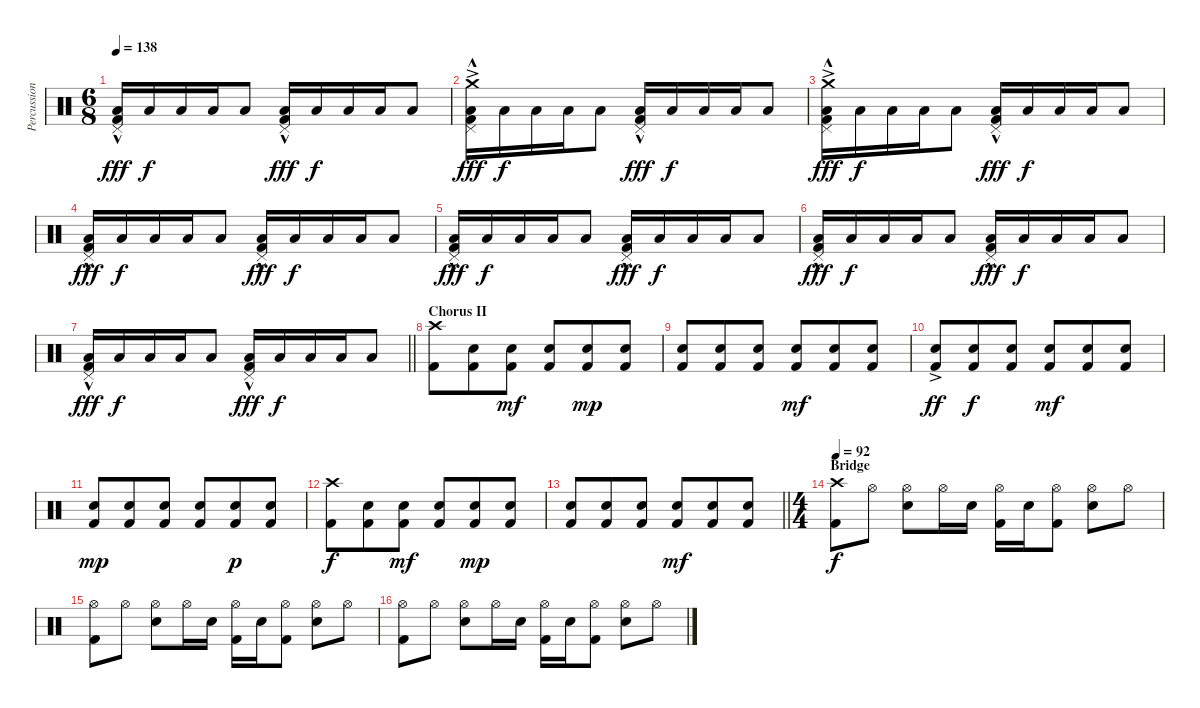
\track ("Percussion" "Percussion") {instrument percussion}
\staff {score}
\articulation defaults
\ts (6 8)
\tempo 138
\clef neutral
\ks c
("Pedal Hi-Hat (hit)"{hac} "Low Floor Tom (hit)" "Kick (hit) 2").16{dy fff} "Low Floor Tom (hit)".16{dy f} "Low Floor Tom (hit)".16 "Low Floor Tom (hit)".16 "Low Floor Tom (hit)".8 ("Pedal Hi-Hat (hit)"{hac} "Low Floor Tom (hit)" "Kick (hit) 2").16{dy fff} "Low Floor Tom (hit)".16{dy f} "Low Floor Tom (hit)".16 "Low Floor Tom (hit)".16 "Low Floor Tom (hit)".8 |
("Crash medium (hit)"{ac} "Pedal Hi-Hat (hit)"{hac} "Low Floor Tom (hit)" "Kick (hit) 2").16{dy fff} "Low Floor Tom (hit)".16{dy f} "Low Floor Tom (hit)".16 "Low Floor Tom (hit)".16 "Low Floor Tom (hit)".8 ("Pedal Hi-Hat (hit)"{hac} "Low Floor Tom (hit)" "Kick (hit) 2").16{dy fff} "Low Floor Tom (hit)".16{dy f} "Low Floor Tom (hit)".16 "Low Floor Tom (hit)".16 "Low Floor Tom (hit)".8 |
("Crash medium (hit)"{ac} "Pedal Hi-Hat (hit)"{hac} "Low Floor Tom (hit)" "Kick (hit) 2").16{dy fff} "Low Floor Tom (hit)".16{dy f} "Low Floor Tom (hit)".16 "Low Floor Tom (hit)".16 "Low Floor Tom (hit)".8 ("Pedal Hi-Hat (hit)"{hac} "Low Floor Tom (hit)" "Kick (hit) 2").16{dy fff} "Low Floor Tom (hit)".16{dy f} "Low Floor Tom (hit)".16 "Low Floor Tom (hit)".16 "Low Floor Tom (hit)".8 |
("Pedal Hi-Hat (hit)"{hac} "Low Floor Tom (hit)" "Kick (hit) 2").16{dy fff} "Low Floor Tom (hit)".16{dy f} "Low Floor Tom (hit)".16 "Low Floor Tom (hit)".16 "Low Floor Tom (hit)".8 ("Pedal Hi-Hat (hit)"{hac} "Low Floor Tom (hit)" "Kick (hit) 2").16{dy fff} "Low Floor Tom (hit)".16{dy f} "Low Floor Tom (hit)".16 "Low Floor Tom (hit)".16 "Low Floor Tom (hit)".8 |
("Pedal Hi-Hat (hit)"{hac} "Low Floor Tom (hit)" "Kick (hit) 2").16{dy fff} "Low Floor Tom (hit)".16{dy f} "Low Floor Tom (hit)".16 "Low Floor Tom (hit)".16 "Low Floor Tom (hit)".8 ("Pedal Hi-Hat (hit)"{hac} "Low Floor Tom (hit)" "Kick (hit) 2").16{dy fff} "Low Floor Tom (hit)".16{dy f} "Low Floor Tom (hit)".16 "Low Floor Tom (hit)".16 "Low Floor Tom (hit)".8 |
("Pedal Hi-Hat (hit)"{hac} "Low Floor Tom (hit)" "Kick (hit) 2").16{dy fff} "Low Floor Tom (hit)".16{dy f} "Low Floor Tom (hit)".16 "Low Floor Tom (hit)".16 "Low Floor Tom (hit)".8 ("Pedal Hi-Hat (hit)"{hac} "Low Floor Tom (hit)" "Kick (hit) 2").16{dy fff} "Low Floor Tom (hit)".16{dy f} "Low Floor Tom (hit)".16 "Low Floor Tom (hit)".16 "Low Floor Tom (hit)".8 |
\barLineRight lightlight
("Pedal Hi-Hat (hit)"{hac} "Low Floor Tom (hit)" "Kick (hit) 2").16{dy fff} "Low Floor Tom (hit)".16{dy f} "Low Floor Tom (hit)".16 "Low Floor Tom (hit)".16 "Low Floor Tom (hit)".8 ("Pedal Hi-Hat (hit)"{hac} "Low Floor Tom (hit)" "Kick (hit) 2").16{dy fff} "Low Floor Tom (hit)".16{dy f} "Low Floor Tom (hit)".16 "Low Floor Tom (hit)".16 "Low Floor Tom (hit)".8 |
\section ("" "Chorus II")
("Crash high (hit)" "Kick (hit) 2").8 ("Electric Snare (hit)" "Kick (hit) 2").8 ("Electric Snare (hit)" "Kick (hit) 2").8{dy mf} ("Electric Snare (hit)" "Kick (hit) 2").8 ("Electric Snare (hit)" "Kick (hit) 2").8{dy mp} ("Electric Snare (hit)" "Kick (hit) 2").8 |
("Electric Snare (hit)" "Kick (hit) 2").8 ("Electric Snare (hit)" "Kick (hit) 2").8 ("Electric Snare (hit)" "Kick (hit) 2").8 ("Electric Snare (hit)" "Kick (hit) 2").8{dy mf} ("Electric Snare (hit)" "Kick (hit) 2").8 ("Electric Snare (hit)" "Kick (hit) 2").8 |
("Electric Snare (hit)"{ac} "Kick (hit) 2").8{dy ff} ("Electric Snare (hit)" "Kick (hit) 2").8{dy f} ("Electric Snare (hit)" "Kick (hit) 2").8 ("Electric Snare (hit)" "Kick (hit) 2").8{dy mf} ("Electric Snare (hit)" "Kick (hit) 2").8 ("Electric Snare (hit)" "Kick (hit) 2").8 |
("Electric Snare (hit)" "Kick (hit) 2").8{dy mp} ("Electric Snare (hit)" "Kick (hit) 2").8 ("Electric Snare (hit)" "Kick (hit) 2").8 ("Electric Snare (hit)" "Kick (hit) 2").8 ("Electric Snare (hit)" "Kick (hit) 2").8{dy p} ("Electric Snare (hit)" "Kick (hit) 2").8 |
("Crash high (hit)" "Kick (hit) 2").8{dy f} ("Electric Snare (hit)" "Kick (hit) 2").8 ("Electric Snare (hit)" "Kick (hit) 2").8{dy mf} ("Electric Snare (hit)" "Kick (hit) 2").8 ("Electric Snare (hit)" "Kick (hit) 2").8{dy mp} ("Electric Snare (hit)" "Kick (hit) 2").8 |
\barLineRight lightlight
("Electric Snare (hit)" "Kick (hit) 2").8 ("Electric Snare (hit)" "Kick (hit) 2").8 ("Electric Snare (hit)" "Kick (hit) 2").8 ("Electric Snare (hit)" "Kick (hit) 2").8{dy mf} ("Electric Snare (hit)" "Kick (hit) 2").8 ("Electric Snare (hit)" "Kick (hit) 2").8 |
\ts (4 4)
\section ("" "Bridge")
\tempo 92
("Crash high (hit)" "Kick (hit) 2").8{dy f} "Hi-Hat (open)".8 ("Hi-Hat (open)" "Electric Snare (hit)").8 "Hi-Hat (open)".16 "Electric Snare (hit)".16 ("Hi-Hat (open)" "Kick (hit) 2").16 "Electric Snare (hit)".16 ("Hi-Hat (open)" "Kick (hit) 2").8 ("Hi-Hat (open)" "Electric Snare (hit)").8 "Hi-Hat (open)".8 |
("Hi-Hat (open)" "Kick (hit) 2").8 "Hi-Hat (open)".8 ("Hi-Hat (open)" "Electric Snare (hit)").8 "Hi-Hat (open)".16 "Electric Snare (hit)".16 ("Hi-Hat (open)" "Kick (hit) 2").16 "Electric Snare (hit)".16 ("Hi-Hat (open)" "Kick (hit) 2").8 ("Hi-Hat (open)" "Electric Snare (hit)").8 "Hi-Hat (open)".8 |
("Hi-Hat (open)" "Kick (hit) 2").8 "Hi-Hat (open)".8 ("Hi-Hat (open)" "Electric Snare (hit)").8 "Hi-Hat (open)".16 "Electric Snare (hit)".16 ("Hi-Hat (open)" "Kick (hit) 2").16 "Electric Snare (hit)".16 ("Hi-Hat (open)" "Kick (hit) 2").8 ("Hi-Hat (open)" "Electric Snare (hit)").8 "Hi-Hat (open)".8
